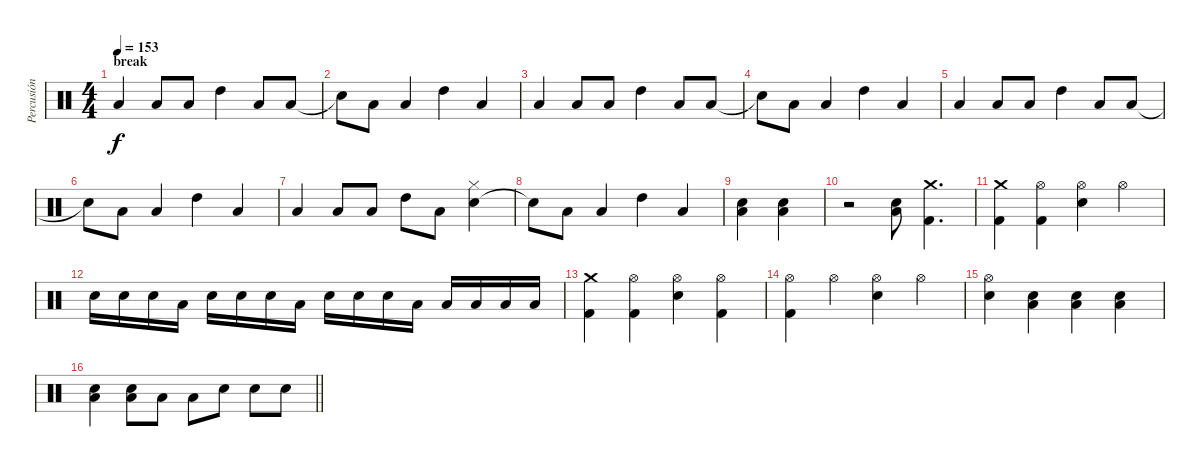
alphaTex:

\track ("Percusión" "Percusión") {instrument percussion}
\staff {score}
\articulation defaults
\ts (4 4)
\section ("" "break")
\tempo 153
\clef neutral
\ks c "Low Floor Tom (hit)".4{dy f} "Low Tom (hit)".8 "Low Tom (hit)".8 "High Tom (hit)".4 "Low Floor Tom (hit)".8 "Low Floor Tom (hit)".8
|
"Snare (hit)"{t}.8 "Low Tom (hit)".8 "Low Tom (hit)".4 "High Tom (hit)".4 "Low Tom (hit)".4 |
"Low Floor Tom (hit)".4 "Low Tom (hit)".8 "Low Tom (hit)".8 "High Tom (hit)".4 "Low Floor Tom (hit)".8 "Low Floor Tom (hit)".8 |
"Snare (hit)"{t}.8 "Low Tom (hit)".8 "Low Tom (hit)".4 "High Tom (hit)".4 "Low Tom (hit)".4 |
"Low Floor Tom (hit)".4 "Low Tom (hit)".8 "Low Tom (hit)".8 "High Tom (hit)".4 "Low Floor Tom (hit)".8 "Low Floor Tom (hit)".8 |
"Snare (hit)"{t}.8 "Low Tom (hit)".8 "Low Tom (hit)".4 "High Tom (hit)".4 "Low Tom (hit)".4 |
"Low Floor Tom (hit)".4 "Low Tom (hit)".8 "Low Tom (hit)".8 "High Tom (hit)".8 "Low Floor Tom (hit)".8 ("Electric Snare (hit)" "Hi-Hat (closed)").4 |
"Snare (hit)"{t}.8 "Low Tom (hit)".8 "Low Tom (hit)".4 "High Tom (hit)".4 "Low Tom (hit)".4 |
("Low Floor Tom (hit)" "Electric Snare (hit)").4 ("Low Floor Tom (hit)" "Electric Snare (hit)").4 |
r.2 ("Low Floor Tom (hit)" "Electric Snare (hit)").8 ("Crash medium (hit)" "Kick (hit) 2").4{d} |
("Crash medium (hit)" "Kick (hit) 2").4 ("Hi-Hat (open)" "Kick (hit) 2").4 ("Hi-Hat (open)" "Electric Snare (hit)").4 "Hi-Hat (open)".4 |
"Electric Snare (hit)".16 "Electric Snare (hit)".16 "Electric Snare (hit)".16 "Low Floor Tom (hit)".16 "Electric Snare (hit)".16 "Electric Snare (hit)".16 "Electric Snare (hit)".16 "Low Tom (hit)".16 "Electric Snare (hit)".16 "Electric Snare (hit)".16 "Electric Snare (hit)".16 "Low Tom (hit)".16 "Low Tom (hit)".16 "Low Floor Tom (hit)".16 "Low Floor Tom (hit)".16 "Low Floor Tom (hit)".16 |
("Crash medium (hit)" "Kick (hit) 2").4 ("Hi-Hat (open)" "Kick (hit) 2").4 ("Hi-Hat (open)" "Electric Snare (hit)").4 ("Hi-Hat (open)" "Kick (hit) 2").4 |
("Hi-Hat (open)" "Kick (hit) 2").4 "Hi-Hat (open)".4 ("Hi-Hat (open)" "Electric Snare (hit)").4 "Hi-Hat (open)".4 |
("Hi-Hat (open)" "Electric Snare (hit)").4 ("Low Floor Tom (hit)" "Electric Snare (hit)").4 ("Low Floor Tom (hit)" "Electric Snare (hit)").4 ("Low Floor Tom (hit)" "Electric Snare (hit)").4 |
\barLineRight lightlight
("Low Floor Tom (hit)" "Electric Snare (hit)").4 ("Low Floor Tom (hit)" "Electric Snare (hit)").8 "Low Floor Tom (hit)".8 "Low Tom (hit)".8 "Electric Snare (hit)".8 "Electric Snare (hit)".8 "Electric Snare (hit)".8
